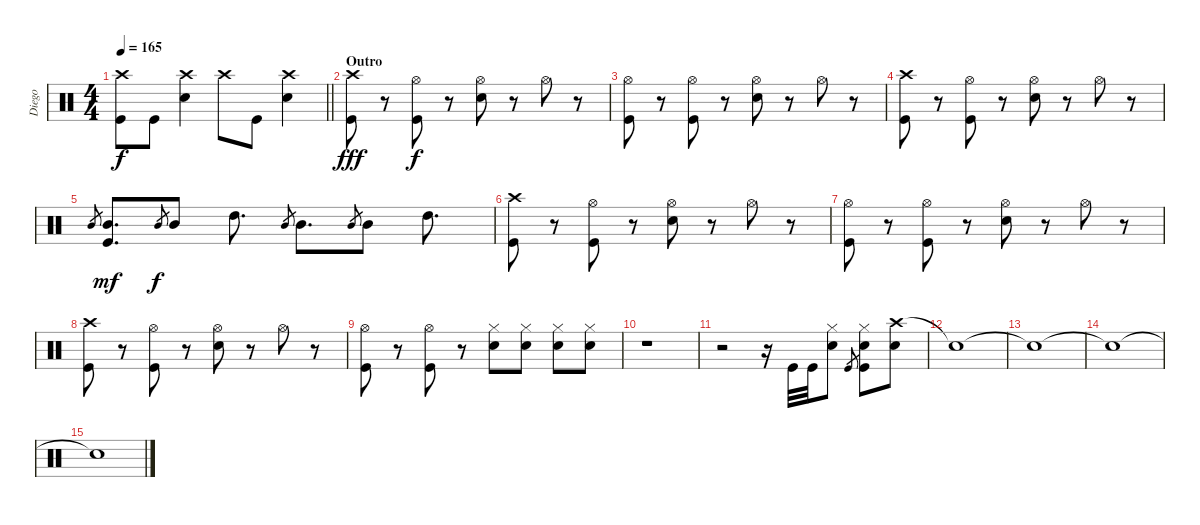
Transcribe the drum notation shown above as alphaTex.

\track ("Diego" "Diego") {instrument percussion}
\staff {score}
\articulation defaults
\ts (4 4)
\tempo 165
\clef neutral
\barLineRight lightlight
\ks c
("Crash high (hit)" "Kick (hit)").8{dy f} "Kick (hit)".8 ("Crash high (hit)" "Snare (hit) 2").4 "Crash high (hit)".8 "Kick (hit)".8 ("Crash high (hit)" "Snare (hit) 2").4 |
\section ("" "Outro")
("Crash high (hit)" "Kick (hit)").8{dy fff} r.8 ("Hi-Hat (open)" "Kick (hit)").8{dy f} r.8 ("Hi-Hat (open)" "Snare (hit) 2").8 r.8 "Hi-Hat (open)".8 r.8 |
("Hi-Hat (open)" "Kick (hit)").8 r.8 ("Hi-Hat (open)" "Kick (hit)").8 r.8 ("Hi-Hat (open)" "Snare (hit) 2").8 r.8 "Hi-Hat (open)".8 r.8 |
("Crash high (hit)" "Kick (hit)").8 r.8 ("Hi-Hat (open)" "Kick (hit)").8 r.8 ("Hi-Hat (open)" "Snare (hit) 2").8 r.8 "Hi-Hat (open)".8 r.8 |
"Mid Tom (hit)".8{gr} ("Mid Tom (hit)" "Kick (hit)").8{d dy mf} "Mid Tom (hit)".8{gr dy f} "Mid Tom (hit)".8 "High Tom (hit)".8{d} "Mid Tom (hit)".8{gr} "Mid Tom (hit)".8{d} "Mid Tom (hit)".8{gr} "Mid Tom (hit)".8 "High Tom (hit)".8{d} |
("Crash high (hit)" "Kick (hit)").8 r.8 ("Hi-Hat (open)" "Kick (hit)").8 r.8 ("Hi-Hat (open)" "Snare (hit) 2").8 r.8 "Hi-Hat (open)".8 r.8 |
("Hi-Hat (open)" "Kick (hit)").8 r.8 ("Hi-Hat (open)" "Kick (hit)").8 r.8 ("Hi-Hat (open)" "Snare (hit) 2").8 r.8 "Hi-Hat (open)".8 r.8 |
("Crash high (hit)" "Kick (hit)").8 r.8 ("Hi-Hat (open)" "Kick (hit)").8 r.8 ("Hi-Hat (open)" "Snare (hit) 2").8 r.8 "Hi-Hat (open)".8 r.8 |
("Hi-Hat (open)" "Kick (hit)").8 r.8 ("Hi-Hat (open)" "Kick (hit)").8 r.8 ("Hi-Hat (closed)" "Snare (hit) 2").8 ("Hi-Hat (closed)" "Snare (hit) 2").8 ("Hi-Hat (closed)" "Snare (hit) 2").8 ("Hi-Hat (closed)" "Snare (hit) 2").8 |
r.1 |
r.2 r.16 "Kick (hit)".32 "Kick (hit)".32 ("Hi-Hat (closed)" "Snare (hit) 2").8 "Kick (hit)".8{gr} ("Hi-Hat (closed)" "Snare (hit) 2" "Kick (hit)").8 ("Crash high (hit)" "Snare (hit) 2").8 |
"Snare (hit)"{t}.1 |
"Snare (hit)"{t}.1 |
"Snare (hit)"{t}.1 |
"Snare (hit)"{t}.1
